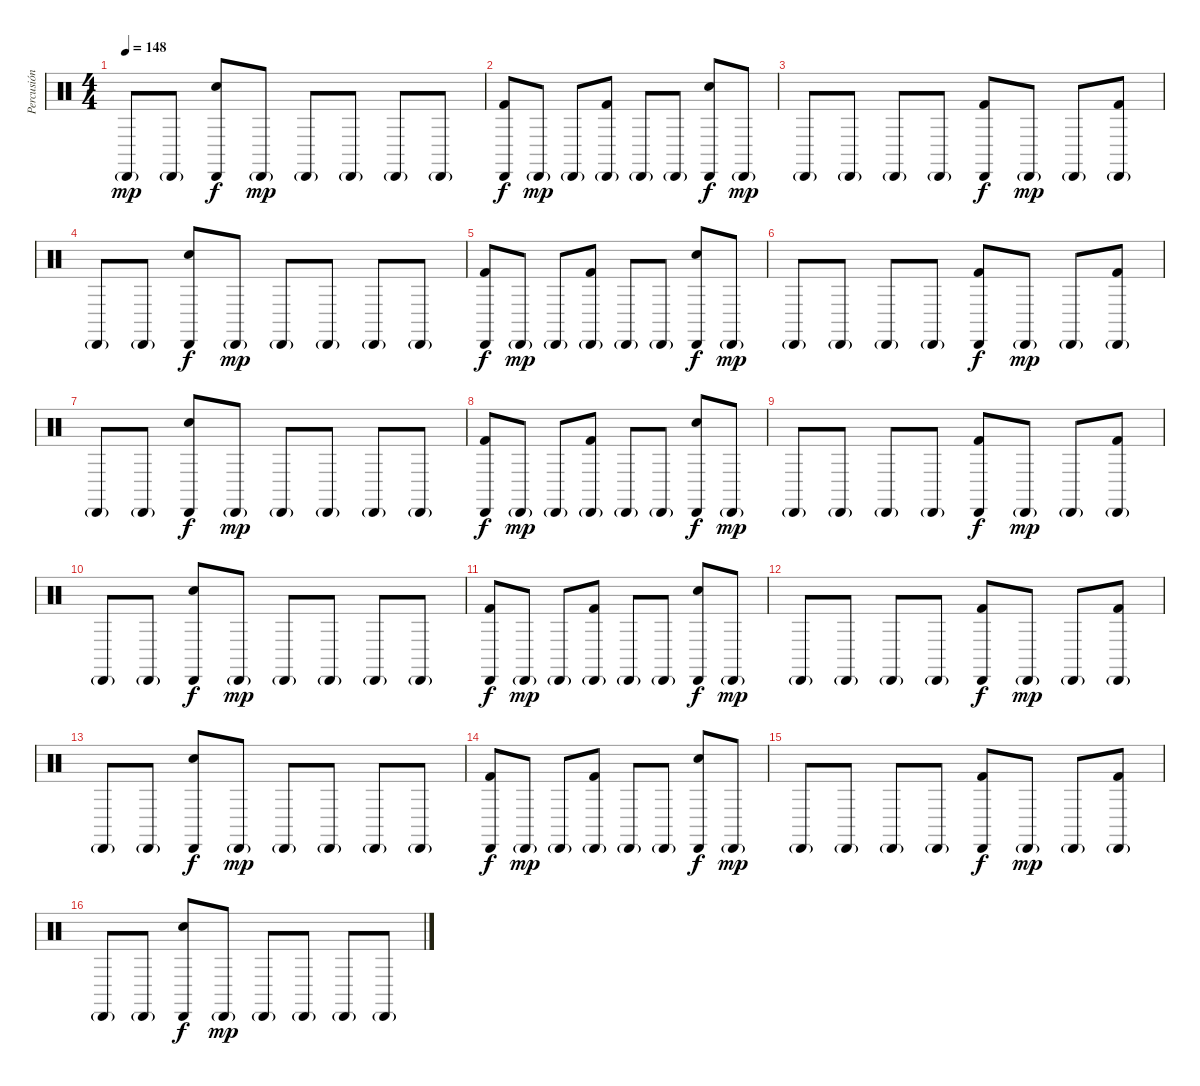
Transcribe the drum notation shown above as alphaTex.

\track ("Percusión" "Percusión") {instrument percussion}
\staff {score}
\articulation defaults
\ts (4 4)
\tempo 148
\clef neutral
\ks c "Cabasa (hit)"{g}.8{dy mp} "Cabasa (hit)"{g}.8
("Electric Snare (hit)" "Cabasa (hit)").8{dy f} "Cabasa (hit)"{g}.8{dy mp} "Cabasa (hit)"{g}.8 "Cabasa (hit)"{g}.8 "Cabasa (hit)"{g}.8 "Cabasa (hit)"{g}.8 |
("Kick (hit) 2" "Cabasa (hit)").8{dy f} "Cabasa (hit)"{g}.8{dy mp} "Cabasa (hit)"{g}.8 ("Kick (hit) 2" "Cabasa (hit)"{g}).8 "Cabasa (hit)"{g}.8 "Cabasa (hit)"{g}.8 ("Electric Snare (hit)" "Cabasa (hit)").8{dy f} "Cabasa (hit)"{g}.8{dy mp} |
"Cabasa (hit)"{g}.8 "Cabasa (hit)"{g}.8 "Cabasa (hit)"{g}.8 "Cabasa (hit)"{g}.8 ("Kick (hit) 2" "Cabasa (hit)").8{dy f} "Cabasa (hit)"{g}.8{dy mp} "Cabasa (hit)"{g}.8 ("Kick (hit) 2" "Cabasa (hit)"{g}).8 |
"Cabasa (hit)"{g}.8 "Cabasa (hit)"{g}.8 ("Electric Snare (hit)" "Cabasa (hit)").8{dy f} "Cabasa (hit)"{g}.8{dy mp} "Cabasa (hit)"{g}.8 "Cabasa (hit)"{g}.8 "Cabasa (hit)"{g}.8 "Cabasa (hit)"{g}.8 |
("Kick (hit) 2" "Cabasa (hit)").8{dy f} "Cabasa (hit)"{g}.8{dy mp} "Cabasa (hit)"{g}.8 ("Kick (hit) 2" "Cabasa (hit)"{g}).8 "Cabasa (hit)"{g}.8 "Cabasa (hit)"{g}.8 ("Electric Snare (hit)" "Cabasa (hit)").8{dy f} "Cabasa (hit)"{g}.8{dy mp} |
"Cabasa (hit)"{g}.8 "Cabasa (hit)"{g}.8 "Cabasa (hit)"{g}.8 "Cabasa (hit)"{g}.8 ("Kick (hit) 2" "Cabasa (hit)").8{dy f} "Cabasa (hit)"{g}.8{dy mp} "Cabasa (hit)"{g}.8 ("Kick (hit) 2" "Cabasa (hit)"{g}).8 |
"Cabasa (hit)"{g}.8 "Cabasa (hit)"{g}.8 ("Electric Snare (hit)" "Cabasa (hit)").8{dy f} "Cabasa (hit)"{g}.8{dy mp} "Cabasa (hit)"{g}.8 "Cabasa (hit)"{g}.8 "Cabasa (hit)"{g}.8 "Cabasa (hit)"{g}.8 |
("Kick (hit) 2" "Cabasa (hit)").8{dy f} "Cabasa (hit)"{g}.8{dy mp} "Cabasa (hit)"{g}.8 ("Kick (hit) 2" "Cabasa (hit)"{g}).8 "Cabasa (hit)"{g}.8 "Cabasa (hit)"{g}.8 ("Electric Snare (hit)" "Cabasa (hit)").8{dy f} "Cabasa (hit)"{g}.8{dy mp} |
"Cabasa (hit)"{g}.8 "Cabasa (hit)"{g}.8 "Cabasa (hit)"{g}.8 "Cabasa (hit)"{g}.8 ("Kick (hit) 2" "Cabasa (hit)").8{dy f} "Cabasa (hit)"{g}.8{dy mp} "Cabasa (hit)"{g}.8 ("Kick (hit) 2" "Cabasa (hit)"{g}).8 |
"Cabasa (hit)"{g}.8 "Cabasa (hit)"{g}.8 ("Electric Snare (hit)" "Cabasa (hit)").8{dy f} "Cabasa (hit)"{g}.8{dy mp} "Cabasa (hit)"{g}.8 "Cabasa (hit)"{g}.8 "Cabasa (hit)"{g}.8 "Cabasa (hit)"{g}.8 |
("Kick (hit) 2" "Cabasa (hit)").8{dy f} "Cabasa (hit)"{g}.8{dy mp} "Cabasa (hit)"{g}.8 ("Kick (hit) 2" "Cabasa (hit)"{g}).8 "Cabasa (hit)"{g}.8 "Cabasa (hit)"{g}.8 ("Electric Snare (hit)" "Cabasa (hit)").8{dy f} "Cabasa (hit)"{g}.8{dy mp} |
"Cabasa (hit)"{g}.8 "Cabasa (hit)"{g}.8 "Cabasa (hit)"{g}.8 "Cabasa (hit)"{g}.8 ("Kick (hit) 2" "Cabasa (hit)").8{dy f} "Cabasa (hit)"{g}.8{dy mp} "Cabasa (hit)"{g}.8 ("Kick (hit) 2" "Cabasa (hit)"{g}).8 |
"Cabasa (hit)"{g}.8 "Cabasa (hit)"{g}.8 ("Electric Snare (hit)" "Cabasa (hit)").8{dy f} "Cabasa (hit)"{g}.8{dy mp} "Cabasa (hit)"{g}.8 "Cabasa (hit)"{g}.8 "Cabasa (hit)"{g}.8 "Cabasa (hit)"{g}.8 |
("Kick (hit) 2" "Cabasa (hit)").8{dy f} "Cabasa (hit)"{g}.8{dy mp} "Cabasa (hit)"{g}.8 ("Kick (hit) 2" "Cabasa (hit)"{g}).8 "Cabasa (hit)"{g}.8 "Cabasa (hit)"{g}.8 ("Electric Snare (hit)" "Cabasa (hit)").8{dy f} "Cabasa (hit)"{g}.8{dy mp} |
"Cabasa (hit)"{g}.8 "Cabasa (hit)"{g}.8 "Cabasa (hit)"{g}.8 "Cabasa (hit)"{g}.8 ("Kick (hit) 2" "Cabasa (hit)").8{dy f} "Cabasa (hit)"{g}.8{dy mp} "Cabasa (hit)"{g}.8 ("Kick (hit) 2" "Cabasa (hit)"{g}).8 |
"Cabasa (hit)"{g}.8 "Cabasa (hit)"{g}.8 ("Electric Snare (hit)" "Cabasa (hit)").8{dy f} "Cabasa (hit)"{g}.8{dy mp} "Cabasa (hit)"{g}.8 "Cabasa (hit)"{g}.8 "Cabasa (hit)"{g}.8 "Cabasa (hit)"{g}.8
